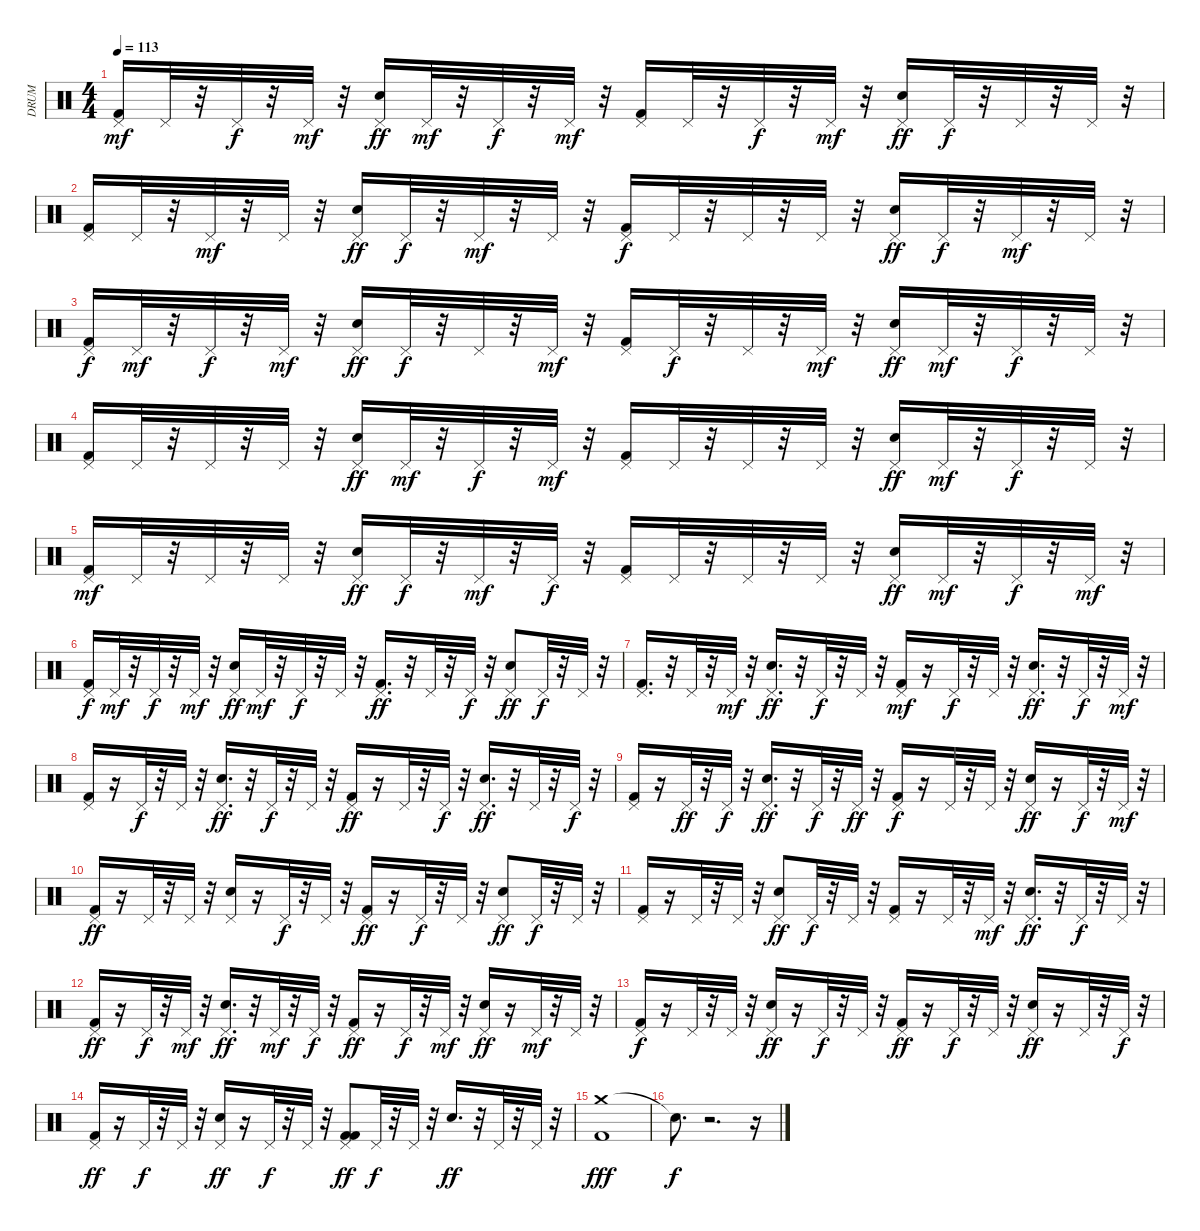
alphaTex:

\track ("DRUM" "DRUM") {instrument percussion}
\staff {score}
\articulation defaults
\ts (4 4)
\tempo 113
\clef neutral
\ks c
("Pedal Hi-Hat (hit)" "Kick (hit) 2").16{dy mf} "Pedal Hi-Hat (hit)".32 r.32 "Pedal Hi-Hat (hit)".32{dy f} r.32 "Pedal Hi-Hat (hit)".32{dy mf} r.32 ("Pedal Hi-Hat (hit)" "Snare (hit) 2").16{dy ff} "Pedal Hi-Hat (hit)".32{dy mf} r.32 "Pedal Hi-Hat (hit)".32{dy f} r.32 "Pedal Hi-Hat (hit)".32{dy mf} r.32 ("Pedal Hi-Hat (hit)" "Kick (hit) 2").16 "Pedal Hi-Hat (hit)".32 r.32 "Pedal Hi-Hat (hit)".32{dy f} r.32 "Pedal Hi-Hat (hit)".32{dy mf} r.32 ("Pedal Hi-Hat (hit)" "Snare (hit) 2").16{dy ff} "Pedal Hi-Hat (hit)".32{dy f} r.32 "Pedal Hi-Hat (hit)".32 r.32 "Pedal Hi-Hat (hit)".32 r.32 |
("Pedal Hi-Hat (hit)" "Kick (hit) 2").16 "Pedal Hi-Hat (hit)".32 r.32 "Pedal Hi-Hat (hit)".32{dy mf} r.32 "Pedal Hi-Hat (hit)".32 r.32 ("Pedal Hi-Hat (hit)" "Snare (hit) 2").16{dy ff} "Pedal Hi-Hat (hit)".32{dy f} r.32 "Pedal Hi-Hat (hit)".32{dy mf} r.32 "Pedal Hi-Hat (hit)".32 r.32 ("Pedal Hi-Hat (hit)" "Kick (hit) 2").16{dy f} "Pedal Hi-Hat (hit)".32 r.32 "Pedal Hi-Hat (hit)".32 r.32 "Pedal Hi-Hat (hit)".32 r.32 ("Pedal Hi-Hat (hit)" "Snare (hit) 2").16{dy ff} "Pedal Hi-Hat (hit)".32{dy f} r.32 "Pedal Hi-Hat (hit)".32{dy mf} r.32 "Pedal Hi-Hat (hit)".32 r.32 |
("Pedal Hi-Hat (hit)" "Kick (hit) 2").16{dy f} "Pedal Hi-Hat (hit)".32{dy mf} r.32 "Pedal Hi-Hat (hit)".32{dy f} r.32 "Pedal Hi-Hat (hit)".32{dy mf} r.32 ("Pedal Hi-Hat (hit)" "Snare (hit) 2").16{dy ff} "Pedal Hi-Hat (hit)".32{dy f} r.32 "Pedal Hi-Hat (hit)".32 r.32 "Pedal Hi-Hat (hit)".32{dy mf} r.32 ("Pedal Hi-Hat (hit)" "Kick (hit) 2").16 "Pedal Hi-Hat (hit)".32{dy f} r.32 "Pedal Hi-Hat (hit)".32 r.32 "Pedal Hi-Hat (hit)".32{dy mf} r.32 ("Pedal Hi-Hat (hit)" "Snare (hit) 2").16{dy ff} "Pedal Hi-Hat (hit)".32{dy mf} r.32 "Pedal Hi-Hat (hit)".32{dy f} r.32 "Pedal Hi-Hat (hit)".32 r.32 |
("Pedal Hi-Hat (hit)" "Kick (hit) 2").16 "Pedal Hi-Hat (hit)".32 r.32 "Pedal Hi-Hat (hit)".32 r.32 "Pedal Hi-Hat (hit)".32 r.32 ("Pedal Hi-Hat (hit)" "Snare (hit) 2").16{dy ff} "Pedal Hi-Hat (hit)".32{dy mf} r.32 "Pedal Hi-Hat (hit)".32{dy f} r.32 "Pedal Hi-Hat (hit)".32{dy mf} r.32 ("Pedal Hi-Hat (hit)" "Kick (hit) 2").16 "Pedal Hi-Hat (hit)".32 r.32 "Pedal Hi-Hat (hit)".32 r.32 "Pedal Hi-Hat (hit)".32 r.32 ("Pedal Hi-Hat (hit)" "Snare (hit) 2").16{dy ff} "Pedal Hi-Hat (hit)".32{dy mf} r.32 "Pedal Hi-Hat (hit)".32{dy f} r.32 "Pedal Hi-Hat (hit)".32 r.32 |
("Pedal Hi-Hat (hit)" "Kick (hit) 2").16{dy mf} "Pedal Hi-Hat (hit)".32 r.32 "Pedal Hi-Hat (hit)".32 r.32 "Pedal Hi-Hat (hit)".32 r.32 ("Pedal Hi-Hat (hit)" "Snare (hit) 2").16{dy ff} "Pedal Hi-Hat (hit)".32{dy f} r.32 "Pedal Hi-Hat (hit)".32{dy mf} r.32 "Pedal Hi-Hat (hit)".32{dy f} r.32 ("Pedal Hi-Hat (hit)" "Kick (hit) 2").16 "Pedal Hi-Hat (hit)".32 r.32 "Pedal Hi-Hat (hit)".32 r.32 "Pedal Hi-Hat (hit)".32 r.32 ("Pedal Hi-Hat (hit)" "Snare (hit) 2").16{dy ff} "Pedal Hi-Hat (hit)".32{dy mf} r.32 "Pedal Hi-Hat (hit)".32{dy f} r.32 "Pedal Hi-Hat (hit)".32{dy mf} r.32 |
("Pedal Hi-Hat (hit)" "Kick (hit) 2").16{dy f} "Pedal Hi-Hat (hit)".32{dy mf} r.32 "Pedal Hi-Hat (hit)".32{dy f} r.32 "Pedal Hi-Hat (hit)".32{dy mf} r.32 ("Pedal Hi-Hat (hit)" "Snare (hit) 2").16{dy ff} "Pedal Hi-Hat (hit)".32{dy mf} r.32 "Pedal Hi-Hat (hit)".32{dy f} r.32 "Pedal Hi-Hat (hit)".32 r.32 ("Pedal Hi-Hat (hit)" "Kick (hit) 2").16{d dy ff} r.32 "Pedal Hi-Hat (hit)".32 r.32 "Pedal Hi-Hat (hit)".32{dy f} r.32 ("Pedal Hi-Hat (hit)" "Snare (hit) 2").8{dy ff} "Pedal Hi-Hat (hit)".32{dy f} r.32 "Pedal Hi-Hat (hit)".32 r.32 |
("Pedal Hi-Hat (hit)" "Kick (hit) 2").16{d} r.32 "Pedal Hi-Hat (hit)".32 r.32 "Pedal Hi-Hat (hit)".32{dy mf} r.32 ("Pedal Hi-Hat (hit)" "Snare (hit) 2").16{d dy ff} r.32 "Pedal Hi-Hat (hit)".32{dy f} r.32 "Pedal Hi-Hat (hit)".32 r.32 ("Pedal Hi-Hat (hit)" "Kick (hit) 2").16{dy mf} r.16 "Pedal Hi-Hat (hit)".32{dy f} r.32 "Pedal Hi-Hat (hit)".32 r.32 ("Pedal Hi-Hat (hit)" "Snare (hit) 2").16{d dy ff} r.32 "Pedal Hi-Hat (hit)".32{dy f} r.32 "Pedal Hi-Hat (hit)".32{dy mf} r.32 |
("Pedal Hi-Hat (hit)" "Kick (hit) 2").16 r.16 "Pedal Hi-Hat (hit)".32{dy f} r.32 "Pedal Hi-Hat (hit)".32 r.32 ("Pedal Hi-Hat (hit)" "Snare (hit) 2").16{d dy ff} r.32 "Pedal Hi-Hat (hit)".32{dy f} r.32 "Pedal Hi-Hat (hit)".32 r.32 ("Pedal Hi-Hat (hit)" "Kick (hit) 2").16{dy ff} r.16 "Pedal Hi-Hat (hit)".32 r.32 "Pedal Hi-Hat (hit)".32{dy f} r.32 ("Pedal Hi-Hat (hit)" "Snare (hit) 2").16{d dy ff} r.32 "Pedal Hi-Hat (hit)".32 r.32 "Pedal Hi-Hat (hit)".32{dy f} r.32 |
("Pedal Hi-Hat (hit)" "Kick (hit) 2").16 r.16 "Pedal Hi-Hat (hit)".32{dy ff} r.32 "Pedal Hi-Hat (hit)".32{dy f} r.32 ("Pedal Hi-Hat (hit)" "Snare (hit) 2").16{d dy ff} r.32 "Pedal Hi-Hat (hit)".32{dy f} r.32 "Pedal Hi-Hat (hit)".32{dy ff} r.32 ("Pedal Hi-Hat (hit)" "Kick (hit) 2").16{dy f} r.16 "Pedal Hi-Hat (hit)".32 r.32 "Pedal Hi-Hat (hit)".32 r.32 ("Pedal Hi-Hat (hit)" "Snare (hit) 2").16{dy ff} r.16 "Pedal Hi-Hat (hit)".32{dy f} r.32 "Pedal Hi-Hat (hit)".32{dy mf} r.32 |
("Pedal Hi-Hat (hit)" "Kick (hit) 2").16{dy ff} r.16 "Pedal Hi-Hat (hit)".32 r.32 "Pedal Hi-Hat (hit)".32 r.32 ("Pedal Hi-Hat (hit)" "Snare (hit) 2").16 r.16 "Pedal Hi-Hat (hit)".32{dy f} r.32 "Pedal Hi-Hat (hit)".32 r.32 ("Pedal Hi-Hat (hit)" "Kick (hit) 2").16{dy ff} r.16 "Pedal Hi-Hat (hit)".32{dy f} r.32 "Pedal Hi-Hat (hit)".32 r.32 ("Pedal Hi-Hat (hit)" "Snare (hit) 2").8{dy ff} "Pedal Hi-Hat (hit)".32{dy f} r.32 "Pedal Hi-Hat (hit)".32 r.32 |
("Pedal Hi-Hat (hit)" "Kick (hit) 2").16 r.16 "Pedal Hi-Hat (hit)".32 r.32 "Pedal Hi-Hat (hit)".32 r.32 ("Pedal Hi-Hat (hit)" "Snare (hit) 2").8{dy ff} "Pedal Hi-Hat (hit)".32{dy f} r.32 "Pedal Hi-Hat (hit)".32 r.32 ("Pedal Hi-Hat (hit)" "Kick (hit) 2").16 r.16 "Pedal Hi-Hat (hit)".32 r.32 "Pedal Hi-Hat (hit)".32{dy mf} r.32 ("Pedal Hi-Hat (hit)" "Snare (hit) 2").16{d dy ff} r.32 "Pedal Hi-Hat (hit)".32{dy f} r.32 "Pedal Hi-Hat (hit)".32 r.32 |
("Pedal Hi-Hat (hit)" "Kick (hit) 2").16{dy ff} r.16 "Pedal Hi-Hat (hit)".32{dy f} r.32 "Pedal Hi-Hat (hit)".32{dy mf} r.32 ("Pedal Hi-Hat (hit)" "Snare (hit) 2").16{d dy ff} r.32 "Pedal Hi-Hat (hit)".32{dy mf} r.32 "Pedal Hi-Hat (hit)".32{dy f} r.32 ("Pedal Hi-Hat (hit)" "Kick (hit) 2").16{dy ff} r.16 "Pedal Hi-Hat (hit)".32{dy f} r.32 "Pedal Hi-Hat (hit)".32{dy mf} r.32 ("Pedal Hi-Hat (hit)" "Snare (hit) 2").16{dy ff} r.16 "Pedal Hi-Hat (hit)".32{dy mf} r.32 "Pedal Hi-Hat (hit)".32 r.32 |
("Pedal Hi-Hat (hit)" "Kick (hit) 2").16{dy f} r.16 "Pedal Hi-Hat (hit)".32 r.32 "Pedal Hi-Hat (hit)".32 r.32 ("Pedal Hi-Hat (hit)" "Snare (hit) 2").16{dy ff} r.16 "Pedal Hi-Hat (hit)".32{dy f} r.32 "Pedal Hi-Hat (hit)".32 r.32 ("Pedal Hi-Hat (hit)" "Kick (hit) 2").16{dy ff} r.16 "Pedal Hi-Hat (hit)".32{dy f} r.32 "Pedal Hi-Hat (hit)".32 r.32 ("Pedal Hi-Hat (hit)" "Snare (hit) 2").16{dy ff} r.16 "Pedal Hi-Hat (hit)".32 r.32 "Pedal Hi-Hat (hit)".32{dy f} r.32 |
("Pedal Hi-Hat (hit)" "Kick (hit) 2").16{dy ff} r.16 "Pedal Hi-Hat (hit)".32{dy f} r.32 "Pedal Hi-Hat (hit)".32 r.32 ("Pedal Hi-Hat (hit)" "Snare (hit) 2").16{dy ff} r.16 "Pedal Hi-Hat (hit)".32{dy f} r.32 "Pedal Hi-Hat (hit)".32 r.32 ("Kick (hit) 2" "Pedal Hi-Hat (hit)" "Kick (hit) 2").8{dy ff} "Pedal Hi-Hat (hit)".32{dy f} r.32 "Pedal Hi-Hat (hit)".32 r.32 "Snare (hit) 2".16{d dy ff} r.32 "Pedal Hi-Hat (hit)".32 r.32 "Pedal Hi-Hat (hit)".32 r.32 |
("Crash medium (hit)" "Kick (hit) 2").1{dy fff} |
"Snare (hit)"{t}.8{d dy f} r.2{d} r.16
